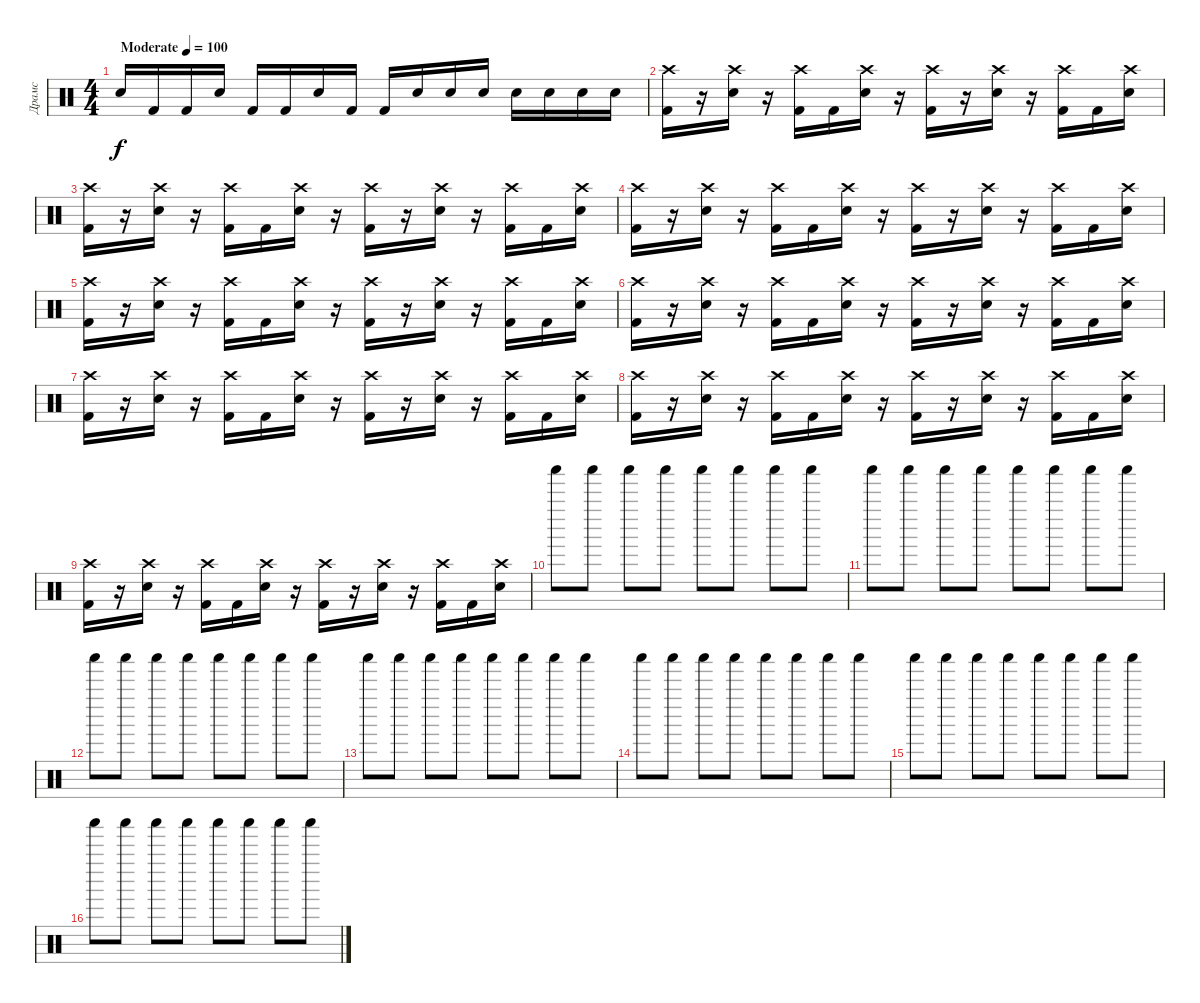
\track ("Драмс" "Драмс") {instrument percussion}
\staff {score}
\articulation defaults
\ts (4 4)
\tempo (100 "Moderate")
\clef neutral
\ks c "Snare (hit) 2".16{dy f} "Kick (hit) 2".16 "Kick (hit) 2".16 "Snare (hit) 2".16 "Kick (hit) 2".16 "Kick (hit) 2".16 "Snare (hit) 2".16 "Kick (hit) 2".16 "Kick (hit) 2".16 "Snare (hit) 2".16 "Snare (hit) 2".16 "Snare (hit) 2".16 "Snare (hit) 2".16 "Snare (hit) 2".16 "Snare (hit) 2".16 "Snare (hit) 2".16
|
("Crash high (hit)" "Kick (hit) 2").16 r.16 ("Crash high (hit)" "Snare (hit) 2").16 r.16 ("Crash high (hit)" "Kick (hit) 2").16 "Kick (hit) 2".16 ("Crash high (hit)" "Snare (hit) 2").16 r.16 ("Crash high (hit)" "Kick (hit) 2").16 r.16 ("Crash high (hit)" "Snare (hit) 2").16 r.16 ("Crash high (hit)" "Kick (hit) 2").16 "Kick (hit) 2".16 ("Crash high (hit)" "Snare (hit) 2").16 |
("Crash high (hit)" "Kick (hit) 2").16 r.16 ("Crash high (hit)" "Snare (hit) 2").16 r.16 ("Crash high (hit)" "Kick (hit) 2").16 "Kick (hit) 2".16 ("Crash high (hit)" "Snare (hit) 2").16 r.16 ("Crash high (hit)" "Kick (hit) 2").16 r.16 ("Crash high (hit)" "Snare (hit) 2").16 r.16 ("Crash high (hit)" "Kick (hit) 2").16 "Kick (hit) 2".16 ("Crash high (hit)" "Snare (hit) 2").16 |
("Crash high (hit)" "Kick (hit) 2").16 r.16 ("Crash high (hit)" "Snare (hit) 2").16 r.16 ("Crash high (hit)" "Kick (hit) 2").16 "Kick (hit) 2".16 ("Crash high (hit)" "Snare (hit) 2").16 r.16 ("Crash high (hit)" "Kick (hit) 2").16 r.16 ("Crash high (hit)" "Snare (hit) 2").16 r.16 ("Crash high (hit)" "Kick (hit) 2").16 "Kick (hit) 2".16 ("Crash high (hit)" "Snare (hit) 2").16 |
("Crash high (hit)" "Kick (hit) 2").16 r.16 ("Crash high (hit)" "Snare (hit) 2").16 r.16 ("Crash high (hit)" "Kick (hit) 2").16 "Kick (hit) 2".16 ("Crash high (hit)" "Snare (hit) 2").16 r.16 ("Crash high (hit)" "Kick (hit) 2").16 r.16 ("Crash high (hit)" "Snare (hit) 2").16 r.16 ("Crash high (hit)" "Kick (hit) 2").16 "Kick (hit) 2".16 ("Crash high (hit)" "Snare (hit) 2").16 |
("Crash high (hit)" "Kick (hit) 2").16 r.16 ("Crash high (hit)" "Snare (hit) 2").16 r.16 ("Crash high (hit)" "Kick (hit) 2").16 "Kick (hit) 2".16 ("Crash high (hit)" "Snare (hit) 2").16 r.16 ("Crash high (hit)" "Kick (hit) 2").16 r.16 ("Crash high (hit)" "Snare (hit) 2").16 r.16 ("Crash high (hit)" "Kick (hit) 2").16 "Kick (hit) 2".16 ("Crash high (hit)" "Snare (hit) 2").16 |
("Crash high (hit)" "Kick (hit) 2").16 r.16 ("Crash high (hit)" "Snare (hit) 2").16 r.16 ("Crash high (hit)" "Kick (hit) 2").16 "Kick (hit) 2".16 ("Crash high (hit)" "Snare (hit) 2").16 r.16 ("Crash high (hit)" "Kick (hit) 2").16 r.16 ("Crash high (hit)" "Snare (hit) 2").16 r.16 ("Crash high (hit)" "Kick (hit) 2").16 "Kick (hit) 2".16 ("Crash high (hit)" "Snare (hit) 2").16 |
("Crash high (hit)" "Kick (hit) 2").16 r.16 ("Crash high (hit)" "Snare (hit) 2").16 r.16 ("Crash high (hit)" "Kick (hit) 2").16 "Kick (hit) 2".16 ("Crash high (hit)" "Snare (hit) 2").16 r.16 ("Crash high (hit)" "Kick (hit) 2").16 r.16 ("Crash high (hit)" "Snare (hit) 2").16 r.16 ("Crash high (hit)" "Kick (hit) 2").16 "Kick (hit) 2".16 ("Crash high (hit)" "Snare (hit) 2").16 |
("Crash high (hit)" "Kick (hit) 2").16 r.16 ("Crash high (hit)" "Snare (hit) 2").16 r.16 ("Crash high (hit)" "Kick (hit) 2").16 "Kick (hit) 2".16 ("Crash high (hit)" "Snare (hit) 2").16 r.16 ("Crash high (hit)" "Kick (hit) 2").16 r.16 ("Crash high (hit)" "Snare (hit) 2").16 r.16 ("Crash high (hit)" "Kick (hit) 2").16 "Kick (hit) 2".16 ("Crash high (hit)" "Snare (hit) 2").16 |
"Shaker (hit)".8 "Shaker (hit)".8 "Shaker (hit)".8 "Shaker (hit)".8 "Shaker (hit)".8 "Shaker (hit)".8 "Shaker (hit)".8 "Shaker (hit)".8 |
"Shaker (hit)".8 "Shaker (hit)".8 "Shaker (hit)".8 "Shaker (hit)".8 "Shaker (hit)".8 "Shaker (hit)".8 "Shaker (hit)".8 "Shaker (hit)".8 |
"Shaker (hit)".8 "Shaker (hit)".8 "Shaker (hit)".8 "Shaker (hit)".8 "Shaker (hit)".8 "Shaker (hit)".8 "Shaker (hit)".8 "Shaker (hit)".8 |
"Shaker (hit)".8 "Shaker (hit)".8 "Shaker (hit)".8 "Shaker (hit)".8 "Shaker (hit)".8 "Shaker (hit)".8 "Shaker (hit)".8 "Shaker (hit)".8 |
"Shaker (hit)".8 "Shaker (hit)".8 "Shaker (hit)".8 "Shaker (hit)".8 "Shaker (hit)".8 "Shaker (hit)".8 "Shaker (hit)".8 "Shaker (hit)".8 |
"Shaker (hit)".8 "Shaker (hit)".8 "Shaker (hit)".8 "Shaker (hit)".8 "Shaker (hit)".8 "Shaker (hit)".8 "Shaker (hit)".8 "Shaker (hit)".8 |
"Shaker (hit)".8 "Shaker (hit)".8 "Shaker (hit)".8 "Shaker (hit)".8 "Shaker (hit)".8 "Shaker (hit)".8 "Shaker (hit)".8 "Shaker (hit)".8
